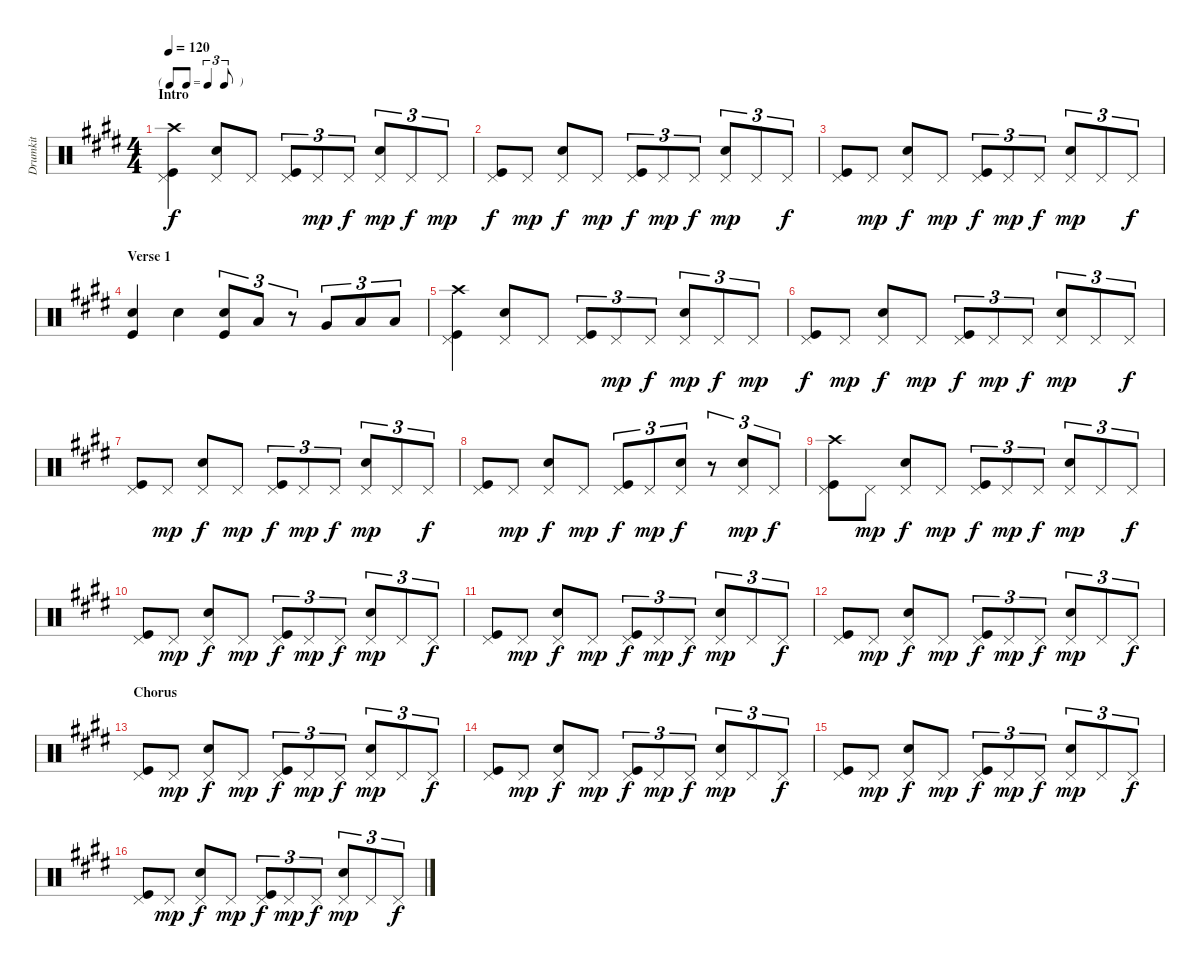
\track ("Drumkit" "Drumkit") {instrument percussion}
\staff {score}
\articulation defaults
\ts (4 4)
\tf triplet8th
\section ("" "Intro")
\tempo 120
\clef neutral
\ks e
("Crash high (hit)" "Pedal Hi-Hat (hit)" "Kick (hit)").4{dy f volume 10} ("Pedal Hi-Hat (hit)" "Snare (hit) 2").8 "Pedal Hi-Hat (hit)".8 ("Pedal Hi-Hat (hit)" "Kick (hit)").8{tu (3 2)} "Pedal Hi-Hat (hit)".8{tu (3 2) dy mp} "Pedal Hi-Hat (hit)".8{tu (3 2) dy f} ("Pedal Hi-Hat (hit)" "Snare (hit) 2").8{tu (3 2) dy mp} "Pedal Hi-Hat (hit)".8{tu (3 2) dy f} "Pedal Hi-Hat (hit)".8{tu (3 2) dy mp} |
("Pedal Hi-Hat (hit)" "Kick (hit)").8{dy f} "Pedal Hi-Hat (hit)".8{dy mp} ("Pedal Hi-Hat (hit)" "Snare (hit) 2").8{dy f} "Pedal Hi-Hat (hit)".8{dy mp} ("Pedal Hi-Hat (hit)" "Kick (hit)").8{tu (3 2) dy f} "Pedal Hi-Hat (hit)".8{tu (3 2) dy mp} "Pedal Hi-Hat (hit)".8{tu (3 2) dy f} ("Pedal Hi-Hat (hit)" "Snare (hit) 2").8{tu (3 2) dy mp} "Pedal Hi-Hat (hit)".8{tu (3 2)} "Pedal Hi-Hat (hit)".8{tu (3 2) dy f} |
("Pedal Hi-Hat (hit)" "Kick (hit)").8 "Pedal Hi-Hat (hit)".8{dy mp} ("Pedal Hi-Hat (hit)" "Snare (hit) 2").8{dy f} "Pedal Hi-Hat (hit)".8{dy mp} ("Pedal Hi-Hat (hit)" "Kick (hit)").8{tu (3 2) dy f} "Pedal Hi-Hat (hit)".8{tu (3 2) dy mp} "Pedal Hi-Hat (hit)".8{tu (3 2) dy f} ("Pedal Hi-Hat (hit)" "Snare (hit) 2").8{tu (3 2) dy mp} "Pedal Hi-Hat (hit)".8{tu (3 2)} "Pedal Hi-Hat (hit)".8{tu (3 2) dy f} |
\section ("" "Verse 1")
("Snare (hit) 2" "Kick (hit)").4 "Snare (hit) 2".4 ("Snare (hit) 2" "Kick (hit)").8{tu (3 2)} "Low Tom (hit)".8{tu (3 2)} r.8{tu (3 2)} "Very Low Tom (hit)".8{tu (3 2)} "Low Floor Tom (hit)".8{tu (3 2)} "Low Floor Tom (hit)".8{tu (3 2)} |
("Crash high (hit)" "Pedal Hi-Hat (hit)" "Kick (hit)").4 ("Pedal Hi-Hat (hit)" "Snare (hit) 2").8 "Pedal Hi-Hat (hit)".8 ("Pedal Hi-Hat (hit)" "Kick (hit)").8{tu (3 2)} "Pedal Hi-Hat (hit)".8{tu (3 2) dy mp} "Pedal Hi-Hat (hit)".8{tu (3 2) dy f} ("Pedal Hi-Hat (hit)" "Snare (hit) 2").8{tu (3 2) dy mp} "Pedal Hi-Hat (hit)".8{tu (3 2) dy f} "Pedal Hi-Hat (hit)".8{tu (3 2) dy mp} |
("Pedal Hi-Hat (hit)" "Kick (hit)").8{dy f} "Pedal Hi-Hat (hit)".8{dy mp} ("Pedal Hi-Hat (hit)" "Snare (hit) 2").8{dy f} "Pedal Hi-Hat (hit)".8{dy mp} ("Pedal Hi-Hat (hit)" "Kick (hit)").8{tu (3 2) dy f} "Pedal Hi-Hat (hit)".8{tu (3 2) dy mp} "Pedal Hi-Hat (hit)".8{tu (3 2) dy f} ("Pedal Hi-Hat (hit)" "Snare (hit) 2").8{tu (3 2) dy mp} "Pedal Hi-Hat (hit)".8{tu (3 2)} "Pedal Hi-Hat (hit)".8{tu (3 2) dy f} |
("Pedal Hi-Hat (hit)" "Kick (hit)").8 "Pedal Hi-Hat (hit)".8{dy mp} ("Pedal Hi-Hat (hit)" "Snare (hit) 2").8{dy f} "Pedal Hi-Hat (hit)".8{dy mp} ("Pedal Hi-Hat (hit)" "Kick (hit)").8{tu (3 2) dy f} "Pedal Hi-Hat (hit)".8{tu (3 2) dy mp} "Pedal Hi-Hat (hit)".8{tu (3 2) dy f} ("Pedal Hi-Hat (hit)" "Snare (hit) 2").8{tu (3 2) dy mp} "Pedal Hi-Hat (hit)".8{tu (3 2)} "Pedal Hi-Hat (hit)".8{tu (3 2) dy f} |
("Pedal Hi-Hat (hit)" "Kick (hit)").8 "Pedal Hi-Hat (hit)".8{dy mp} ("Pedal Hi-Hat (hit)" "Snare (hit) 2").8{dy f} "Pedal Hi-Hat (hit)".8{dy mp} ("Pedal Hi-Hat (hit)" "Kick (hit)").8{tu (3 2) dy f} "Pedal Hi-Hat (hit)".8{tu (3 2) dy mp} ("Pedal Hi-Hat (hit)" "Snare (hit) 2").8{tu (3 2) dy f} r.8{tu (3 2)} ("Pedal Hi-Hat (hit)" "Snare (hit) 2").8{tu (3 2) dy mp} "Pedal Hi-Hat (hit)".8{tu (3 2) dy f} |
("Crash high (hit)" "Pedal Hi-Hat (hit)" "Kick (hit)").8 "Pedal Hi-Hat (hit)".8{dy mp} ("Pedal Hi-Hat (hit)" "Snare (hit) 2").8{dy f} "Pedal Hi-Hat (hit)".8{dy mp} ("Pedal Hi-Hat (hit)" "Kick (hit)").8{tu (3 2) dy f} "Pedal Hi-Hat (hit)".8{tu (3 2) dy mp} "Pedal Hi-Hat (hit)".8{tu (3 2) dy f} ("Pedal Hi-Hat (hit)" "Snare (hit) 2").8{tu (3 2) dy mp} "Pedal Hi-Hat (hit)".8{tu (3 2)} "Pedal Hi-Hat (hit)".8{tu (3 2) dy f} |
("Pedal Hi-Hat (hit)" "Kick (hit)").8 "Pedal Hi-Hat (hit)".8{dy mp} ("Pedal Hi-Hat (hit)" "Snare (hit) 2").8{dy f} "Pedal Hi-Hat (hit)".8{dy mp} ("Pedal Hi-Hat (hit)" "Kick (hit)").8{tu (3 2) dy f} "Pedal Hi-Hat (hit)".8{tu (3 2) dy mp} "Pedal Hi-Hat (hit)".8{tu (3 2) dy f} ("Pedal Hi-Hat (hit)" "Snare (hit) 2").8{tu (3 2) dy mp} "Pedal Hi-Hat (hit)".8{tu (3 2)} "Pedal Hi-Hat (hit)".8{tu (3 2) dy f} |
("Pedal Hi-Hat (hit)" "Kick (hit)").8 "Pedal Hi-Hat (hit)".8{dy mp} ("Pedal Hi-Hat (hit)" "Snare (hit) 2").8{dy f} "Pedal Hi-Hat (hit)".8{dy mp} ("Pedal Hi-Hat (hit)" "Kick (hit)").8{tu (3 2) dy f} "Pedal Hi-Hat (hit)".8{tu (3 2) dy mp} "Pedal Hi-Hat (hit)".8{tu (3 2) dy f} ("Pedal Hi-Hat (hit)" "Snare (hit) 2").8{tu (3 2) dy mp} "Pedal Hi-Hat (hit)".8{tu (3 2)} "Pedal Hi-Hat (hit)".8{tu (3 2) dy f} |
("Pedal Hi-Hat (hit)" "Kick (hit)").8 "Pedal Hi-Hat (hit)".8{dy mp} ("Pedal Hi-Hat (hit)" "Snare (hit) 2").8{dy f} "Pedal Hi-Hat (hit)".8{dy mp} ("Pedal Hi-Hat (hit)" "Kick (hit)").8{tu (3 2) dy f} "Pedal Hi-Hat (hit)".8{tu (3 2) dy mp} "Pedal Hi-Hat (hit)".8{tu (3 2) dy f} ("Pedal Hi-Hat (hit)" "Snare (hit) 2").8{tu (3 2) dy mp} "Pedal Hi-Hat (hit)".8{tu (3 2)} "Pedal Hi-Hat (hit)".8{tu (3 2) dy f} |
\section ("" "Chorus")
("Pedal Hi-Hat (hit)" "Kick (hit)").8 "Pedal Hi-Hat (hit)".8{dy mp} ("Pedal Hi-Hat (hit)" "Snare (hit) 2").8{dy f} "Pedal Hi-Hat (hit)".8{dy mp} ("Pedal Hi-Hat (hit)" "Kick (hit)").8{tu (3 2) dy f} "Pedal Hi-Hat (hit)".8{tu (3 2) dy mp} "Pedal Hi-Hat (hit)".8{tu (3 2) dy f} ("Pedal Hi-Hat (hit)" "Snare (hit) 2").8{tu (3 2) dy mp} "Pedal Hi-Hat (hit)".8{tu (3 2)} "Pedal Hi-Hat (hit)".8{tu (3 2) dy f} |
("Pedal Hi-Hat (hit)" "Kick (hit)").8 "Pedal Hi-Hat (hit)".8{dy mp} ("Pedal Hi-Hat (hit)" "Snare (hit) 2").8{dy f} "Pedal Hi-Hat (hit)".8{dy mp} ("Pedal Hi-Hat (hit)" "Kick (hit)").8{tu (3 2) dy f} "Pedal Hi-Hat (hit)".8{tu (3 2) dy mp} "Pedal Hi-Hat (hit)".8{tu (3 2) dy f} ("Pedal Hi-Hat (hit)" "Snare (hit) 2").8{tu (3 2) dy mp} "Pedal Hi-Hat (hit)".8{tu (3 2)} "Pedal Hi-Hat (hit)".8{tu (3 2) dy f} |
("Pedal Hi-Hat (hit)" "Kick (hit)").8 "Pedal Hi-Hat (hit)".8{dy mp} ("Pedal Hi-Hat (hit)" "Snare (hit) 2").8{dy f} "Pedal Hi-Hat (hit)".8{dy mp} ("Pedal Hi-Hat (hit)" "Kick (hit)").8{tu (3 2) dy f} "Pedal Hi-Hat (hit)".8{tu (3 2) dy mp} "Pedal Hi-Hat (hit)".8{tu (3 2) dy f} ("Pedal Hi-Hat (hit)" "Snare (hit) 2").8{tu (3 2) dy mp} "Pedal Hi-Hat (hit)".8{tu (3 2)} "Pedal Hi-Hat (hit)".8{tu (3 2) dy f} |
("Pedal Hi-Hat (hit)" "Kick (hit)").8 "Pedal Hi-Hat (hit)".8{dy mp} ("Pedal Hi-Hat (hit)" "Snare (hit) 2").8{dy f} "Pedal Hi-Hat (hit)".8{dy mp} ("Pedal Hi-Hat (hit)" "Kick (hit)").8{tu (3 2) dy f} "Pedal Hi-Hat (hit)".8{tu (3 2) dy mp} "Pedal Hi-Hat (hit)".8{tu (3 2) dy f} ("Pedal Hi-Hat (hit)" "Snare (hit) 2").8{tu (3 2) dy mp} "Pedal Hi-Hat (hit)".8{tu (3 2)} "Pedal Hi-Hat (hit)".8{tu (3 2) dy f}
